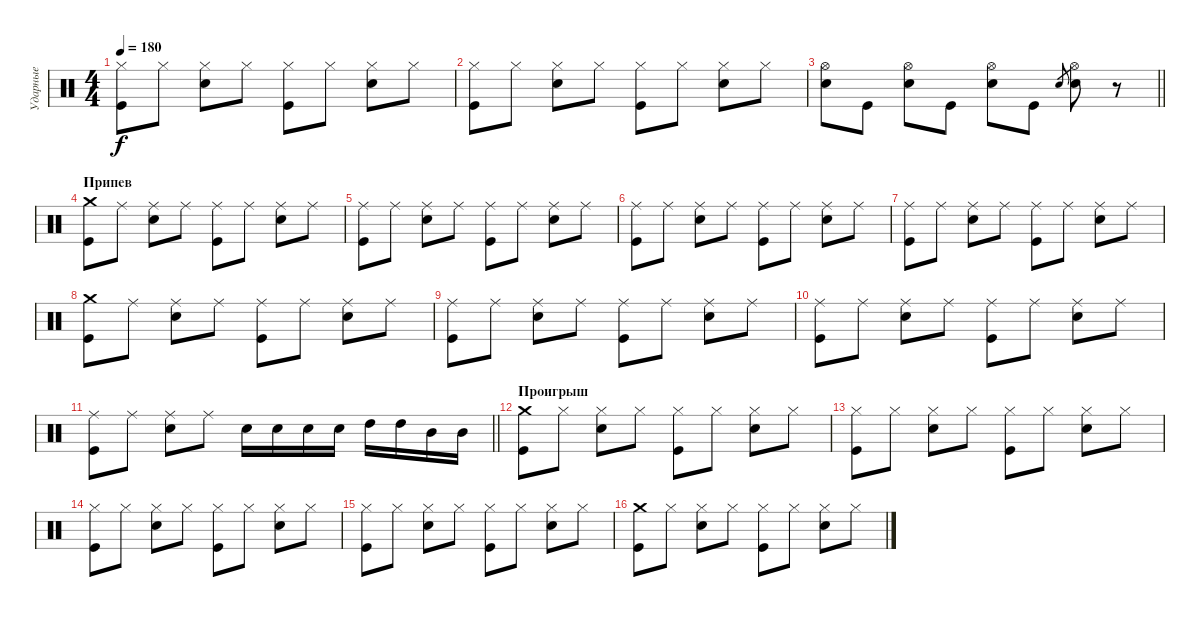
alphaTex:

\track ("Ударные" "Ударные") {instrument percussion}
\staff {score}
\articulation defaults
\ts (4 4)
\tempo 180
\clef neutral
\ks c
("Hi-Hat (closed)" "Kick (hit)").8{dy f} "Hi-Hat (closed)".8 ("Hi-Hat (closed)" "Electric Snare (hit)").8 "Hi-Hat (closed)".8 ("Hi-Hat (closed)" "Kick (hit)").8 "Hi-Hat (closed)".8 ("Hi-Hat (closed)" "Electric Snare (hit)").8 "Hi-Hat (closed)".8 |
("Hi-Hat (closed)" "Kick (hit)").8 "Hi-Hat (closed)".8 ("Hi-Hat (closed)" "Electric Snare (hit)").8 "Hi-Hat (closed)".8 ("Hi-Hat (closed)" "Kick (hit)").8 "Hi-Hat (closed)".8 ("Hi-Hat (closed)" "Electric Snare (hit)").8 "Hi-Hat (closed)".8 |
\barLineRight lightlight
("Hi-Hat (open)" "Electric Snare (hit)").8 "Kick (hit)".8 ("Hi-Hat (open)" "Electric Snare (hit)").8 "Kick (hit)".8 ("Hi-Hat (open)" "Electric Snare (hit)").8 "Kick (hit)".8 "Electric Snare (hit)".8{gr} ("Hi-Hat (open)" "Electric Snare (hit)").8 r.8 |
\section ("" "Припев")
("Crash medium (hit)" "Kick (hit)").8 "Ride (middle)".8 ("Ride (middle)" "Electric Snare (hit)").8 "Ride (middle)".8 ("Ride (middle)" "Kick (hit)").8 "Ride (middle)".8 ("Ride (middle)" "Electric Snare (hit)").8 "Ride (middle)".8 |
("Ride (middle)" "Kick (hit)").8 "Ride (middle)".8 ("Ride (middle)" "Electric Snare (hit)").8 "Ride (middle)".8 ("Ride (middle)" "Kick (hit)").8 "Ride (middle)".8 ("Ride (middle)" "Electric Snare (hit)").8 "Ride (middle)".8 |
("Ride (middle)" "Kick (hit)").8 "Ride (middle)".8 ("Ride (middle)" "Electric Snare (hit)").8 "Ride (middle)".8 ("Ride (middle)" "Kick (hit)").8 "Ride (middle)".8 ("Ride (middle)" "Electric Snare (hit)").8 "Ride (middle)".8 |
("Ride (middle)" "Kick (hit)").8 "Ride (middle)".8 ("Ride (middle)" "Electric Snare (hit)").8 "Ride (middle)".8 ("Ride (middle)" "Kick (hit)").8 "Ride (middle)".8 ("Ride (middle)" "Electric Snare (hit)").8 "Ride (middle)".8 |
("Crash medium (hit)" "Kick (hit)").8 "Ride (middle)".8 ("Ride (middle)" "Electric Snare (hit)").8 "Ride (middle)".8 ("Ride (middle)" "Kick (hit)").8 "Ride (middle)".8 ("Ride (middle)" "Electric Snare (hit)").8 "Ride (middle)".8 |
("Ride (middle)" "Kick (hit)").8 "Ride (middle)".8 ("Ride (middle)" "Electric Snare (hit)").8 "Ride (middle)".8 ("Ride (middle)" "Kick (hit)").8 "Ride (middle)".8 ("Ride (middle)" "Electric Snare (hit)").8 "Ride (middle)".8 |
("Ride (middle)" "Kick (hit)").8 "Ride (middle)".8 ("Ride (middle)" "Electric Snare (hit)").8 "Ride (middle)".8 ("Ride (middle)" "Kick (hit)").8 "Ride (middle)".8 ("Ride (middle)" "Electric Snare (hit)").8 "Ride (middle)".8 |
\barLineRight lightlight
("Ride (middle)" "Kick (hit)").8 "Ride (middle)".8 ("Ride (middle)" "Electric Snare (hit)").8 "Ride (middle)".8 "Electric Snare (hit)".16 "Electric Snare (hit)".16 "Electric Snare (hit)".16 "Electric Snare (hit)".16 "High Tom (hit)".16 "High Tom (hit)".16 "Mid Tom (hit)".16 "Mid Tom (hit)".16 |
\section ("" "Проигрыш")
("Crash medium (hit)" "Kick (hit)").8 "Hi-Hat (closed)".8 ("Hi-Hat (closed)" "Electric Snare (hit)").8 "Hi-Hat (closed)".8 ("Hi-Hat (closed)" "Kick (hit)").8 "Hi-Hat (closed)".8 ("Hi-Hat (closed)" "Electric Snare (hit)").8 "Hi-Hat (closed)".8 |
("Hi-Hat (closed)" "Kick (hit)").8 "Hi-Hat (closed)".8 ("Hi-Hat (closed)" "Electric Snare (hit)").8 "Hi-Hat (closed)".8 ("Hi-Hat (closed)" "Kick (hit)").8 "Hi-Hat (closed)".8 ("Hi-Hat (closed)" "Electric Snare (hit)").8 "Hi-Hat (closed)".8 |
("Hi-Hat (closed)" "Kick (hit)").8 "Hi-Hat (closed)".8 ("Hi-Hat (closed)" "Electric Snare (hit)").8 "Hi-Hat (closed)".8 ("Hi-Hat (closed)" "Kick (hit)").8 "Hi-Hat (closed)".8 ("Hi-Hat (closed)" "Electric Snare (hit)").8 "Hi-Hat (closed)".8 |
("Hi-Hat (closed)" "Kick (hit)").8 "Hi-Hat (closed)".8 ("Hi-Hat (closed)" "Electric Snare (hit)").8 "Hi-Hat (closed)".8 ("Hi-Hat (closed)" "Kick (hit)").8 "Hi-Hat (closed)".8 ("Hi-Hat (closed)" "Electric Snare (hit)").8 "Hi-Hat (closed)".8 |
("Crash medium (hit)" "Kick (hit)").8 "Hi-Hat (closed)".8 ("Hi-Hat (closed)" "Electric Snare (hit)").8 "Hi-Hat (closed)".8 ("Hi-Hat (closed)" "Kick (hit)").8 "Hi-Hat (closed)".8 ("Hi-Hat (closed)" "Electric Snare (hit)").8 "Hi-Hat (closed)".8
